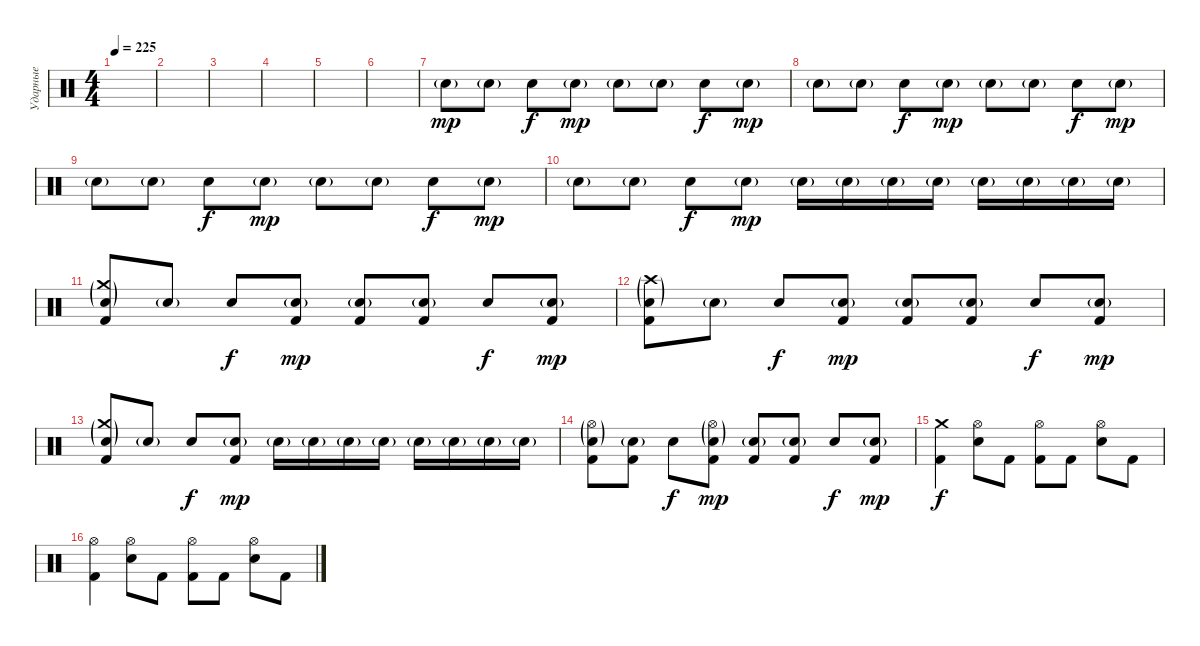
\track ("Ударные" "Ударные") {instrument percussion}
\staff {score}
\articulation defaults
\ts (4 4)
\tempo 225
\clef neutral
\ks c
|
|
|
|
|
|
"Snare (hit) 2"{g}.8{dy mp} "Snare (hit) 2"{g}.8 "Snare (hit) 2".8{dy f} "Snare (hit) 2"{g}.8{dy mp} "Snare (hit) 2"{g}.8 "Snare (hit) 2"{g}.8 "Snare (hit) 2".8{dy f} "Snare (hit) 2"{g}.8{dy mp} |
"Snare (hit) 2"{g}.8 "Snare (hit) 2"{g}.8 "Snare (hit) 2".8{dy f} "Snare (hit) 2"{g}.8{dy mp} "Snare (hit) 2"{g}.8 "Snare (hit) 2"{g}.8 "Snare (hit) 2".8{dy f} "Snare (hit) 2"{g}.8{dy mp} |
"Snare (hit) 2"{g}.8 "Snare (hit) 2"{g}.8 "Snare (hit) 2".8{dy f} "Snare (hit) 2"{g}.8{dy mp} "Snare (hit) 2"{g}.8 "Snare (hit) 2"{g}.8 "Snare (hit) 2".8{dy f} "Snare (hit) 2"{g}.8{dy mp} |
"Snare (hit) 2"{g}.8 "Snare (hit) 2"{g}.8 "Snare (hit) 2".8{dy f} "Snare (hit) 2"{g}.8{dy mp} "Snare (hit) 2"{g}.16 "Snare (hit) 2"{g}.16 "Snare (hit) 2"{g}.16 "Snare (hit) 2"{g}.16 "Snare (hit) 2"{g}.16 "Snare (hit) 2"{g}.16 "Snare (hit) 2"{g}.16 "Snare (hit) 2"{g}.16 |
("Crash medium (hit)"{g} "Snare (hit) 2"{g} "Kick (hit) 2").8 "Snare (hit) 2"{g}.8 "Snare (hit) 2".8{dy f} ("Snare (hit) 2"{g} "Kick (hit) 2").8{dy mp} ("Snare (hit) 2"{g} "Kick (hit) 2").8 ("Snare (hit) 2"{g} "Kick (hit) 2").8 "Snare (hit) 2".8{dy f} ("Snare (hit) 2"{g} "Kick (hit) 2").8{dy mp} |
("Crash high (hit)"{g} "Snare (hit) 2"{g} "Kick (hit) 2").8 "Snare (hit) 2"{g}.8 "Snare (hit) 2".8{dy f} ("Snare (hit) 2"{g} "Kick (hit) 2").8{dy mp} ("Snare (hit) 2"{g} "Kick (hit) 2").8 ("Snare (hit) 2"{g} "Kick (hit) 2").8 "Snare (hit) 2".8{dy f} ("Snare (hit) 2"{g} "Kick (hit) 2").8{dy mp} |
("Crash medium (hit)"{g} "Snare (hit) 2"{g} "Kick (hit) 2").8 "Snare (hit) 2"{g}.8 "Snare (hit) 2".8{dy f} ("Snare (hit) 2"{g} "Kick (hit) 2").8{dy mp} "Snare (hit) 2"{g}.16 "Snare (hit) 2"{g}.16 "Snare (hit) 2"{g}.16 "Snare (hit) 2"{g}.16 "Snare (hit) 2"{g}.16 "Snare (hit) 2"{g}.16 "Snare (hit) 2"{g}.16 "Snare (hit) 2"{g}.16 |
("Hi-Hat (open)"{g} "Snare (hit) 2"{g} "Kick (hit) 2").8 ("Snare (hit) 2"{g} "Kick (hit) 2").8 "Snare (hit) 2".8{dy f} ("Hi-Hat (open)"{g} "Snare (hit) 2"{g} "Kick (hit) 2").8{dy mp} ("Snare (hit) 2"{g} "Kick (hit) 2").8 ("Snare (hit) 2"{g} "Kick (hit) 2").8 "Snare (hit) 2".8{dy f} ("Snare (hit) 2"{g} "Kick (hit) 2").8{dy mp} |
("Crash medium (hit)" "Kick (hit) 2").4{dy f} ("Hi-Hat (open)" "Snare (hit) 2").8 "Kick (hit) 2".8 ("Hi-Hat (open)" "Kick (hit) 2").8 "Kick (hit) 2".8 ("Hi-Hat (open)" "Snare (hit) 2").8 "Kick (hit) 2".8 |
("Hi-Hat (open)" "Kick (hit) 2").4 ("Hi-Hat (open)" "Snare (hit) 2").8 "Kick (hit) 2".8 ("Hi-Hat (open)" "Kick (hit) 2").8 "Kick (hit) 2".8 ("Hi-Hat (open)" "Snare (hit) 2").8 "Kick (hit) 2".8
